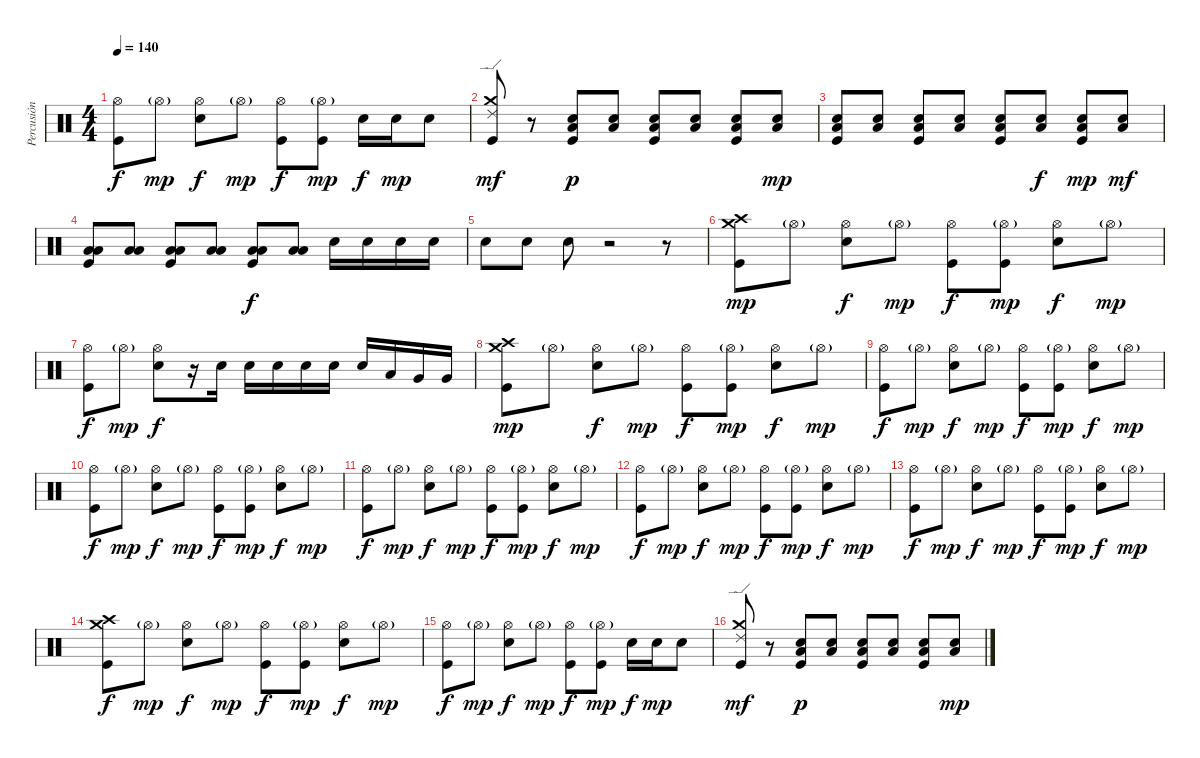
\track ("Percusión" "Percusión") {instrument percussion}
\staff {score}
\articulation defaults
\ts (4 4)
\tempo 140
\clef neutral
\ks c
("Hi-Hat (open)" "Kick (hit)").8{dy f} "Hi-Hat (open)"{g}.8{dy mp} ("Hi-Hat (open)" "Electric Snare (hit)").8{dy f} "Hi-Hat (open)"{g}.8{dy mp} ("Hi-Hat (open)" "Kick (hit)").8{dy f} ("Hi-Hat (open)"{g} "Kick (hit)").8{dy mp} "Electric Snare (hit)".16{dy f} "Electric Snare (hit)".16{dy mp} "Electric Snare (hit)".8 |
("Kick (hit)" "Crash medium (hit)" "Ride (edge) 2").8{dy mf} r.8 ("Kick (hit)" "Low Floor Tom (hit)" "Electric Snare (hit)").8{dy p} ("Low Floor Tom (hit)" "Electric Snare (hit)").8 ("Kick (hit)" "Low Floor Tom (hit)" "Electric Snare (hit)").8 ("Low Floor Tom (hit)" "Electric Snare (hit)").8 ("Kick (hit)" "Low Floor Tom (hit)" "Electric Snare (hit)").8 ("Low Floor Tom (hit)" "Electric Snare (hit)").8{dy mp} |
("Kick (hit)" "Low Floor Tom (hit)" "Electric Snare (hit)").8 ("Low Floor Tom (hit)" "Electric Snare (hit)").8 ("Kick (hit)" "Low Floor Tom (hit)" "Electric Snare (hit)").8 ("Low Floor Tom (hit)" "Electric Snare (hit)").8 ("Kick (hit)" "Low Floor Tom (hit)" "Electric Snare (hit)").8 ("Low Floor Tom (hit)" "Electric Snare (hit)").8{dy f} ("Kick (hit)" "Low Floor Tom (hit)" "Electric Snare (hit)").8{dy mp} ("Low Floor Tom (hit)" "Electric Snare (hit)").8{dy mf} |
("Kick (hit)" "Low Floor Tom (hit)" "Low Tom (hit)").8 ("Low Floor Tom (hit)" "Low Tom (hit)").8 ("Kick (hit)" "Low Floor Tom (hit)" "Low Tom (hit)").8 ("Low Floor Tom (hit)" "Low Tom (hit)").8 ("Kick (hit)" "Low Floor Tom (hit)" "Low Tom (hit)").8{dy f} ("Low Floor Tom (hit)" "Low Tom (hit)").8 "Electric Snare (hit)".16 "Electric Snare (hit)".16 "Electric Snare (hit)".16 "Electric Snare (hit)".16 |
"Electric Snare (hit)".8 "Electric Snare (hit)".8 "Electric Snare (hit)".8 r.2 r.8 |
("Crash high (hit)" "Kick (hit)" "Crash medium (hit)").8{dy mp} "Hi-Hat (open)"{g}.8 ("Hi-Hat (open)" "Electric Snare (hit)").8{dy f} "Hi-Hat (open)"{g}.8{dy mp} ("Hi-Hat (open)" "Kick (hit)").8{dy f} ("Hi-Hat (open)"{g} "Kick (hit)").8{dy mp} ("Hi-Hat (open)" "Electric Snare (hit)").8{dy f} "Hi-Hat (open)"{g}.8{dy mp} |
("Hi-Hat (open)" "Kick (hit)").8{dy f} "Hi-Hat (open)"{g}.8{dy mp} ("Hi-Hat (open)" "Electric Snare (hit)").8{dy f} r.16 "Electric Snare (hit)".16 "Electric Snare (hit)".16 "Electric Snare (hit)".16 "Electric Snare (hit)".16 "Electric Snare (hit)".16 "Electric Snare (hit)".16 "Low Tom (hit)".16 "Very Low Tom (hit)".16 "Very Low Tom (hit)".16 |
("Crash high (hit)" "Kick (hit)" "Crash medium (hit)").8{dy mp} "Hi-Hat (open)"{g}.8 ("Hi-Hat (open)" "Electric Snare (hit)").8{dy f} "Hi-Hat (open)"{g}.8{dy mp} ("Hi-Hat (open)" "Kick (hit)").8{dy f} ("Hi-Hat (open)"{g} "Kick (hit)").8{dy mp} ("Hi-Hat (open)" "Electric Snare (hit)").8{dy f} "Hi-Hat (open)"{g}.8{dy mp} |
("Hi-Hat (open)" "Kick (hit)").8{dy f} "Hi-Hat (open)"{g}.8{dy mp} ("Hi-Hat (open)" "Electric Snare (hit)").8{dy f} "Hi-Hat (open)"{g}.8{dy mp} ("Hi-Hat (open)" "Kick (hit)").8{dy f} ("Hi-Hat (open)"{g} "Kick (hit)").8{dy mp} ("Hi-Hat (open)" "Electric Snare (hit)").8{dy f} "Hi-Hat (open)"{g}.8{dy mp} |
("Hi-Hat (open)" "Kick (hit)").8{dy f} "Hi-Hat (open)"{g}.8{dy mp} ("Hi-Hat (open)" "Electric Snare (hit)").8{dy f} "Hi-Hat (open)"{g}.8{dy mp} ("Hi-Hat (open)" "Kick (hit)").8{dy f} ("Hi-Hat (open)"{g} "Kick (hit)").8{dy mp} ("Hi-Hat (open)" "Electric Snare (hit)").8{dy f} "Hi-Hat (open)"{g}.8{dy mp} |
("Hi-Hat (open)" "Kick (hit)").8{dy f} "Hi-Hat (open)"{g}.8{dy mp} ("Hi-Hat (open)" "Electric Snare (hit)").8{dy f} "Hi-Hat (open)"{g}.8{dy mp} ("Hi-Hat (open)" "Kick (hit)").8{dy f} ("Hi-Hat (open)"{g} "Kick (hit)").8{dy mp} ("Hi-Hat (open)" "Electric Snare (hit)").8{dy f} "Hi-Hat (open)"{g}.8{dy mp} |
("Hi-Hat (open)" "Kick (hit)").8{dy f} "Hi-Hat (open)"{g}.8{dy mp} ("Hi-Hat (open)" "Electric Snare (hit)").8{dy f} "Hi-Hat (open)"{g}.8{dy mp} ("Hi-Hat (open)" "Kick (hit)").8{dy f} ("Hi-Hat (open)"{g} "Kick (hit)").8{dy mp} ("Hi-Hat (open)" "Electric Snare (hit)").8{dy f} "Hi-Hat (open)"{g}.8{dy mp} |
("Hi-Hat (open)" "Kick (hit)").8{dy f} "Hi-Hat (open)"{g}.8{dy mp} ("Hi-Hat (open)" "Electric Snare (hit)").8{dy f} "Hi-Hat (open)"{g}.8{dy mp} ("Hi-Hat (open)" "Kick (hit)").8{dy f} ("Hi-Hat (open)"{g} "Kick (hit)").8{dy mp} ("Hi-Hat (open)" "Electric Snare (hit)").8{dy f} "Hi-Hat (open)"{g}.8{dy mp} |
("Crash medium (hit)" "Kick (hit)" "Crash high (hit)").8{dy f} "Hi-Hat (open)"{g}.8{dy mp} ("Hi-Hat (open)" "Electric Snare (hit)").8{dy f} "Hi-Hat (open)"{g}.8{dy mp} ("Hi-Hat (open)" "Kick (hit)").8{dy f} ("Hi-Hat (open)"{g} "Kick (hit)").8{dy mp} ("Hi-Hat (open)" "Electric Snare (hit)").8{dy f} "Hi-Hat (open)"{g}.8{dy mp} |
("Hi-Hat (open)" "Kick (hit)").8{dy f} "Hi-Hat (open)"{g}.8{dy mp} ("Hi-Hat (open)" "Electric Snare (hit)").8{dy f} "Hi-Hat (open)"{g}.8{dy mp} ("Hi-Hat (open)" "Kick (hit)").8{dy f} ("Hi-Hat (open)"{g} "Kick (hit)").8{dy mp} "Electric Snare (hit)".16{dy f} "Electric Snare (hit)".16{dy mp} "Electric Snare (hit)".8 |
("Kick (hit)" "Crash medium (hit)" "Ride (edge) 2").8{dy mf} r.8 ("Kick (hit)" "Low Floor Tom (hit)" "Electric Snare (hit)").8{dy p} ("Low Floor Tom (hit)" "Electric Snare (hit)").8 ("Kick (hit)" "Low Floor Tom (hit)" "Electric Snare (hit)").8 ("Low Floor Tom (hit)" "Electric Snare (hit)").8 ("Kick (hit)" "Low Floor Tom (hit)" "Electric Snare (hit)").8 ("Low Floor Tom (hit)" "Electric Snare (hit)").8{dy mp}
